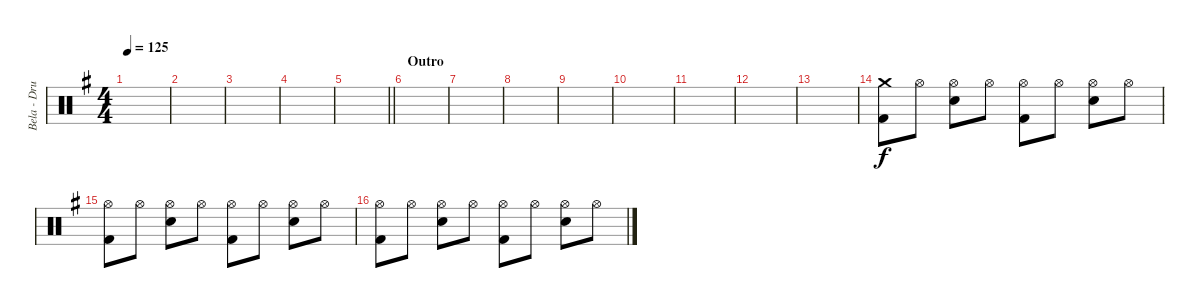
\track ("Bela - Drums" "Bela - Dru") {instrument percussion}
\staff {score}
\articulation defaults
\ts (4 4)
\tempo 125
\clef neutral
\ks g
|
|
|
|
\barLineRight lightlight
|
\section ("" "Outro")
|
|
|
|
|
|
|
|
("Crash medium (hit)" "Kick (hit) 2").8 "Hi-Hat (open)".8 ("Hi-Hat (open)" "Snare (hit) 2").8 "Hi-Hat (open)".8 ("Hi-Hat (open)" "Kick (hit) 2").8 "Hi-Hat (open)".8 ("Hi-Hat (open)" "Snare (hit) 2").8 "Hi-Hat (open)".8 |
("Hi-Hat (open)" "Kick (hit) 2").8 "Hi-Hat (open)".8 ("Hi-Hat (open)" "Snare (hit) 2").8 "Hi-Hat (open)".8 ("Hi-Hat (open)" "Kick (hit) 2").8 "Hi-Hat (open)".8 ("Hi-Hat (open)" "Snare (hit) 2").8 "Hi-Hat (open)".8 |
("Hi-Hat (open)" "Kick (hit) 2").8 "Hi-Hat (open)".8 ("Hi-Hat (open)" "Snare (hit) 2").8 "Hi-Hat (open)".8 ("Hi-Hat (open)" "Kick (hit) 2").8 "Hi-Hat (open)".8 ("Hi-Hat (open)" "Snare (hit) 2").8 "Hi-Hat (open)".8
